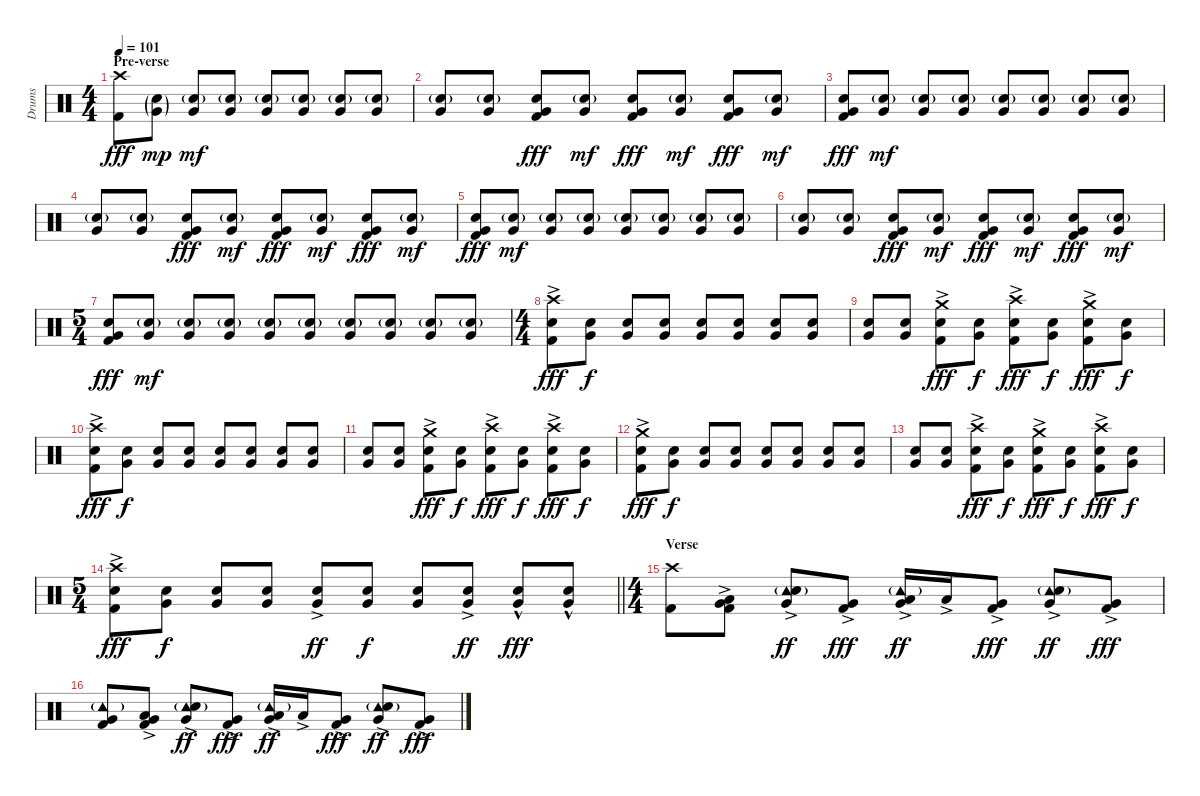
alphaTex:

\track ("Drums" "Drums") {instrument percussion}
\staff {score}
\articulation defaults
\ts (4 4)
\section ("" "Pre-verse")
\tempo 101
\clef neutral
\ks c
("Crash high (hit)" "Kick (hit) 2").8{dy fff} ("Snare (hit) 2"{g} "Very Low Tom (hit)"{g}).8{dy mp} ("Snare (hit) 2"{g} "Very Low Tom (hit)").8{dy mf} ("Snare (hit) 2"{g} "Very Low Tom (hit)").8 ("Snare (hit) 2"{g} "Very Low Tom (hit)").8 ("Snare (hit) 2"{g} "Very Low Tom (hit)").8 ("Snare (hit) 2"{g} "Very Low Tom (hit)").8 ("Snare (hit) 2"{g} "Very Low Tom (hit)").8 |
("Snare (hit) 2"{g} "Very Low Tom (hit)").8 ("Snare (hit) 2"{g} "Very Low Tom (hit)").8 ("Snare (hit) 2" "Very Low Tom (hit)" "Kick (hit) 2").8{dy fff} ("Snare (hit) 2"{g} "Very Low Tom (hit)").8{dy mf} ("Snare (hit) 2" "Very Low Tom (hit)" "Kick (hit) 2").8{dy fff} ("Snare (hit) 2"{g} "Very Low Tom (hit)").8{dy mf} ("Snare (hit) 2" "Very Low Tom (hit)" "Kick (hit) 2").8{dy fff} ("Snare (hit) 2"{g} "Very Low Tom (hit)").8{dy mf} |
("Snare (hit) 2" "Very Low Tom (hit)" "Kick (hit) 2").8{dy fff} ("Snare (hit) 2"{g} "Very Low Tom (hit)").8{dy mf} ("Snare (hit) 2"{g} "Very Low Tom (hit)").8 ("Snare (hit) 2"{g} "Very Low Tom (hit)").8 ("Snare (hit) 2"{g} "Very Low Tom (hit)").8 ("Snare (hit) 2"{g} "Very Low Tom (hit)").8 ("Snare (hit) 2"{g} "Very Low Tom (hit)").8 ("Snare (hit) 2"{g} "Very Low Tom (hit)").8 |
("Snare (hit) 2"{g} "Very Low Tom (hit)").8 ("Snare (hit) 2"{g} "Very Low Tom (hit)").8 ("Snare (hit) 2" "Very Low Tom (hit)" "Kick (hit) 2").8{dy fff} ("Snare (hit) 2"{g} "Very Low Tom (hit)").8{dy mf} ("Snare (hit) 2" "Very Low Tom (hit)" "Kick (hit) 2").8{dy fff} ("Snare (hit) 2"{g} "Very Low Tom (hit)").8{dy mf} ("Snare (hit) 2" "Very Low Tom (hit)" "Kick (hit) 2").8{dy fff} ("Snare (hit) 2"{g} "Very Low Tom (hit)").8{dy mf} |
("Snare (hit) 2" "Very Low Tom (hit)" "Kick (hit) 2").8{dy fff} ("Snare (hit) 2"{g} "Very Low Tom (hit)").8{dy mf} ("Snare (hit) 2"{g} "Very Low Tom (hit)").8 ("Snare (hit) 2"{g} "Very Low Tom (hit)").8 ("Snare (hit) 2"{g} "Very Low Tom (hit)").8 ("Snare (hit) 2"{g} "Very Low Tom (hit)").8 ("Snare (hit) 2"{g} "Very Low Tom (hit)").8 ("Snare (hit) 2"{g} "Very Low Tom (hit)").8 |
("Snare (hit) 2"{g} "Very Low Tom (hit)").8 ("Snare (hit) 2"{g} "Very Low Tom (hit)").8 ("Snare (hit) 2" "Very Low Tom (hit)" "Kick (hit) 2").8{dy fff} ("Snare (hit) 2"{g} "Very Low Tom (hit)").8{dy mf} ("Snare (hit) 2" "Very Low Tom (hit)" "Kick (hit) 2").8{dy fff} ("Snare (hit) 2"{g} "Very Low Tom (hit)").8{dy mf} ("Snare (hit) 2" "Very Low Tom (hit)" "Kick (hit) 2").8{dy fff} ("Snare (hit) 2"{g} "Very Low Tom (hit)").8{dy mf} |
\ts (5 4)
("Snare (hit) 2" "Very Low Tom (hit)" "Kick (hit) 2").8{dy fff} ("Snare (hit) 2"{g} "Very Low Tom (hit)").8{dy mf} ("Snare (hit) 2"{g} "Very Low Tom (hit)").8 ("Snare (hit) 2"{g} "Very Low Tom (hit)").8 ("Snare (hit) 2"{g} "Very Low Tom (hit)").8 ("Snare (hit) 2"{g} "Very Low Tom (hit)").8 ("Snare (hit) 2"{g} "Very Low Tom (hit)").8 ("Snare (hit) 2"{g} "Very Low Tom (hit)").8 ("Snare (hit) 2"{g} "Very Low Tom (hit)").8 ("Snare (hit) 2"{g} "Very Low Tom (hit)").8 |
\ts (4 4)
("Crash high (hit)" "Snare (hit) 2"{ac} "Kick (hit) 2").8{dy fff} ("Snare (hit) 2" "Very Low Tom (hit)").8{dy f} ("Snare (hit) 2" "Very Low Tom (hit)").8 ("Snare (hit) 2" "Very Low Tom (hit)").8 ("Snare (hit) 2" "Very Low Tom (hit)").8 ("Snare (hit) 2" "Very Low Tom (hit)").8 ("Snare (hit) 2" "Very Low Tom (hit)").8 ("Snare (hit) 2" "Very Low Tom (hit)").8 |
("Snare (hit) 2" "Very Low Tom (hit)").8 ("Snare (hit) 2" "Very Low Tom (hit)").8 ("Crash medium (hit)" "Snare (hit) 2"{ac} "Kick (hit) 2").8{dy fff} ("Snare (hit) 2" "Very Low Tom (hit)").8{dy f} ("Crash high (hit)" "Snare (hit) 2"{ac} "Kick (hit) 2").8{dy fff} ("Snare (hit) 2" "Very Low Tom (hit)").8{dy f} ("Crash medium (hit)" "Snare (hit) 2"{ac} "Kick (hit) 2").8{dy fff} ("Snare (hit) 2" "Very Low Tom (hit)").8{dy f} |
("Crash high (hit)" "Snare (hit) 2"{ac} "Kick (hit) 2").8{dy fff} ("Snare (hit) 2" "Very Low Tom (hit)").8{dy f} ("Snare (hit) 2" "Very Low Tom (hit)").8 ("Snare (hit) 2" "Very Low Tom (hit)").8 ("Snare (hit) 2" "Very Low Tom (hit)").8 ("Snare (hit) 2" "Very Low Tom (hit)").8 ("Snare (hit) 2" "Very Low Tom (hit)").8 ("Snare (hit) 2" "Very Low Tom (hit)").8 |
("Snare (hit) 2" "Very Low Tom (hit)").8 ("Snare (hit) 2" "Very Low Tom (hit)").8 ("Crash medium (hit)" "Snare (hit) 2"{ac} "Kick (hit) 2").8{dy fff} ("Snare (hit) 2" "Very Low Tom (hit)").8{dy f} ("Crash high (hit)" "Snare (hit) 2"{ac} "Kick (hit) 2").8{dy fff} ("Snare (hit) 2" "Very Low Tom (hit)").8{dy f} ("Crash high (hit)" "Snare (hit) 2"{ac} "Kick (hit) 2").8{dy fff} ("Snare (hit) 2" "Very Low Tom (hit)").8{dy f} |
("Crash medium (hit)" "Snare (hit) 2"{ac} "Kick (hit) 2").8{dy fff} ("Snare (hit) 2" "Very Low Tom (hit)").8{dy f} ("Snare (hit) 2" "Very Low Tom (hit)").8 ("Snare (hit) 2" "Very Low Tom (hit)").8 ("Snare (hit) 2" "Very Low Tom (hit)").8 ("Snare (hit) 2" "Very Low Tom (hit)").8 ("Snare (hit) 2" "Very Low Tom (hit)").8 ("Snare (hit) 2" "Very Low Tom (hit)").8 |
("Snare (hit) 2" "Very Low Tom (hit)").8 ("Snare (hit) 2" "Very Low Tom (hit)").8 ("Crash high (hit)" "Snare (hit) 2"{ac} "Kick (hit) 2").8{dy fff} ("Snare (hit) 2" "Very Low Tom (hit)").8{dy f} ("Crash medium (hit)" "Snare (hit) 2"{ac} "Kick (hit) 2").8{dy fff} ("Snare (hit) 2" "Very Low Tom (hit)").8{dy f} ("Crash high (hit)" "Snare (hit) 2"{ac} "Kick (hit) 2").8{dy fff} ("Snare (hit) 2" "Very Low Tom (hit)").8{dy f} |
\ts (5 4)
\barLineRight lightlight
("Crash high (hit)" "Snare (hit) 2"{ac} "Kick (hit) 2").8{dy fff} ("Snare (hit) 2" "Very Low Tom (hit)").8{dy f} ("Snare (hit) 2" "Very Low Tom (hit)").8 ("Snare (hit) 2" "Very Low Tom (hit)").8 ("Snare (hit) 2"{ac} "Very Low Tom (hit)"{ac}).8{dy ff} ("Snare (hit) 2" "Very Low Tom (hit)").8{dy f} ("Snare (hit) 2" "Very Low Tom (hit)").8 ("Snare (hit) 2"{ac} "Very Low Tom (hit)"{ac}).8{dy ff} ("Snare (hit) 2"{hac} "Very Low Tom (hit)"{hac}).8{dy fff} ("Snare (hit) 2"{hac} "Very Low Tom (hit)"{hac}).8 |
\ts (4 4)
\section ("" "Verse")
("Crash high (hit)" "Kick (hit) 2").8 ("Low Tom (hit)" "Very Low Tom (hit)"{ac} "Kick (hit) 2").8 ("Tambourine (hit)"{g} "Snare (hit) 2"{ac} "Very Low Tom (hit)"{ac}).8{dy ff} ("Very Low Tom (hit)"{ac} "Kick (hit) 2").8{dy fff} ("Tambourine (hit)"{g} "Low Tom (hit)"{ac} "Very Low Tom (hit)"{ac}).16{dy ff} "Low Tom (hit)"{ac}.16 ("Very Low Tom (hit)"{ac} "Kick (hit) 2").8{dy fff} ("Tambourine (hit)"{g} "Snare (hit) 2"{ac} "Very Low Tom (hit)"{ac}).8{dy ff} ("Very Low Tom (hit)"{ac} "Kick (hit) 2").8{dy fff} |
("Tambourine (hit)"{g} "Very Low Tom (hit)" "Kick (hit) 2").8 ("Low Tom (hit)"{ac} "Very Low Tom (hit)"{ac} "Kick (hit) 2").8 ("Tambourine (hit)"{g} "Snare (hit) 2"{ac} "Very Low Tom (hit)"{ac}).8{dy ff} ("Very Low Tom (hit)"{ac} "Kick (hit) 2").8{dy fff} ("Tambourine (hit)"{g} "Low Tom (hit)"{ac} "Very Low Tom (hit)"{ac}).16{dy ff} "Low Tom (hit)"{ac}.16 ("Very Low Tom (hit)"{ac} "Kick (hit) 2").8{dy fff} ("Tambourine (hit)"{g} "Snare (hit) 2"{ac} "Very Low Tom (hit)"{ac}).8{dy ff} ("Very Low Tom (hit)"{ac} "Kick (hit) 2").8{dy fff}
